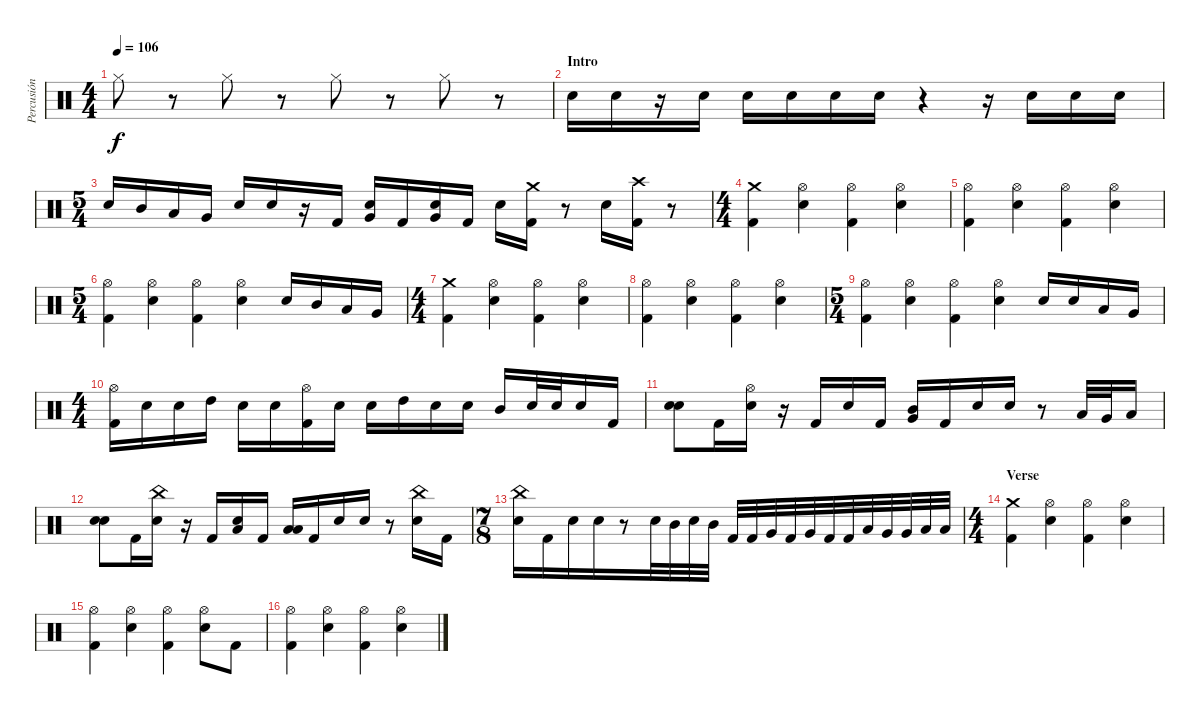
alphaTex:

\track ("Percusión" "Percusión") {instrument percussion}
\staff {score}
\articulation defaults
\ts (4 4)
\tempo 106
\clef neutral
\ks c "Hi-Hat (closed)".8{dy f}
r.8 "Hi-Hat (closed)".8 r.8 "Hi-Hat (closed)".8 r.8 "Hi-Hat (closed)".8 r.8 |
\section ("" "Intro")
"Electric Snare (hit)".16 "Electric Snare (hit)".16 r.16 "Electric Snare (hit)".16 "Electric Snare (hit)".16 "Electric Snare (hit)".16 "Electric Snare (hit)".16 "Electric Snare (hit)".16 r.4 r.16 "Electric Snare (hit)".16 "Electric Snare (hit)".16 "Electric Snare (hit)".16 |
\ts (5 4)
"Electric Snare (hit)".16 "Mid Tom (hit)".16 "Low Tom (hit)".16 "Very Low Tom (hit)".16 "Electric Snare (hit)".16 "Electric Snare (hit)".16 r.16 "Kick (hit) 2".16 ("Electric Snare (hit)" "Very Low Tom (hit)").16 "Kick (hit) 2".16 ("Electric Snare (hit)" "Very Low Tom (hit)").16 "Kick (hit) 2".16 "Electric Snare (hit)".16 ("Crash medium (hit)" "Kick (hit) 2").16 r.8 "Electric Snare (hit)".16 ("Crash high (hit)" "Kick (hit) 2").16 r.8 |
\ts (4 4)
("Crash medium (hit)" "Kick (hit) 2").4 ("Hi-Hat (open)" "Electric Snare (hit)").4 ("Hi-Hat (open)" "Kick (hit) 2").4 ("Hi-Hat (open)" "Electric Snare (hit)").4 |
("Hi-Hat (open)" "Kick (hit) 2").4 ("Hi-Hat (open)" "Electric Snare (hit)").4 ("Hi-Hat (open)" "Kick (hit) 2").4 ("Hi-Hat (open)" "Electric Snare (hit)").4 |
\ts (5 4)
("Hi-Hat (open)" "Kick (hit) 2").4 ("Hi-Hat (open)" "Electric Snare (hit)").4 ("Hi-Hat (open)" "Kick (hit) 2").4 ("Hi-Hat (open)" "Electric Snare (hit)").4 "Electric Snare (hit)".16 "Mid Tom (hit)".16 "Low Tom (hit)".16 "Very Low Tom (hit)".16 |
\ts (4 4)
("Crash medium (hit)" "Kick (hit) 2").4 ("Hi-Hat (open)" "Electric Snare (hit)").4 ("Hi-Hat (open)" "Kick (hit) 2").4 ("Hi-Hat (open)" "Electric Snare (hit)").4 |
("Hi-Hat (open)" "Kick (hit) 2").4 ("Hi-Hat (open)" "Electric Snare (hit)").4 ("Hi-Hat (open)" "Kick (hit) 2").4 ("Hi-Hat (open)" "Electric Snare (hit)").4 |
\ts (5 4)
("Hi-Hat (open)" "Kick (hit) 2").4 ("Hi-Hat (open)" "Electric Snare (hit)").4 ("Hi-Hat (open)" "Kick (hit) 2").4 ("Hi-Hat (open)" "Electric Snare (hit)").4 "Electric Snare (hit)".16 "Electric Snare (hit)".16 "Low Tom (hit)".16 "Very Low Tom (hit)".16 |
\ts (4 4)
("Hi-Hat (open)" "Kick (hit) 2").16 "Electric Snare (hit)".16 "Electric Snare (hit)".16 "High Tom (hit)".16 "Electric Snare (hit)".16 "Electric Snare (hit)".16 ("Hi-Hat (open)" "Kick (hit) 2").16 "Electric Snare (hit)".16 "Electric Snare (hit)".16 "High Tom (hit)".16 "Electric Snare (hit)".16 "Electric Snare (hit)".16 "Mid Tom (hit)".16 "Electric Snare (hit)".32 "Electric Snare (hit)".32 "Electric Snare (hit)".16 "Kick (hit) 2".16 |
("Electric Snare (hit)" "Electric Snare (hit)").8 "Kick (hit) 2".16 ("Hi-Hat (open)" "Electric Snare (hit)").16 r.16 "Kick (hit) 2".16 "Electric Snare (hit)".16 "Kick (hit) 2".16 ("Mid Tom (hit)" "Very Low Tom (hit)").16 "Kick (hit) 2".16 "Electric Snare (hit)".16 "Electric Snare (hit)".16 r.8 "Low Tom (hit)".32 "Very Low Tom (hit)".32 "Low Floor Tom (hit)".16 |
("Electric Snare (hit)" "Electric Snare (hit)").8 "Kick (hit) 2".16 ("China (hit)" "Electric Snare (hit)").16 r.16 "Kick (hit) 2".16 ("Low Tom (hit)" "Electric Snare (hit)").16 "Kick (hit) 2".16 ("Low Tom (hit)" "Low Floor Tom (hit)").16 "Kick (hit) 2".16 "Electric Snare (hit)".16 "Electric Snare (hit)".16 r.8 ("China (hit)" "Electric Snare (hit)").16 "Kick (hit) 2".16 |
\ts (7 8)
("China (hit)" "Electric Snare (hit)").16 "Kick (hit) 2".16 "Electric Snare (hit)".16 "Electric Snare (hit)".16 r.8 "Electric Snare (hit)".32 "Mid Tom (hit)".32 "Electric Snare (hit)".32 "Mid Tom (hit)".32 "Kick (hit) 2".32 "Kick (hit) 2".32 "Very Low Tom (hit)".32 "Kick (hit) 2".32 "Very Low Tom (hit)".32 "Kick (hit) 2".32 "Kick (hit) 2".32 "Low Tom (hit)".32 "Very Low Tom (hit)".32 "Very Low Tom (hit)".32 "Low Floor Tom (hit)".32 "Low Floor Tom (hit)".32 |
\ts (4 4)
\section ("" "Verse")
("Crash medium (hit)" "Kick (hit) 2").4 ("Hi-Hat (open)" "Electric Snare (hit)").4 ("Hi-Hat (open)" "Kick (hit) 2").4 ("Hi-Hat (open)" "Electric Snare (hit)").4 |
("Hi-Hat (open)" "Kick (hit) 2").4 ("Hi-Hat (open)" "Electric Snare (hit)").4 ("Hi-Hat (open)" "Kick (hit) 2").4 ("Hi-Hat (open)" "Electric Snare (hit)").8 "Kick (hit) 2".8 |
("Hi-Hat (open)" "Kick (hit) 2").4 ("Hi-Hat (open)" "Electric Snare (hit)").4 ("Hi-Hat (open)" "Kick (hit) 2").4 ("Hi-Hat (open)" "Electric Snare (hit)").4
